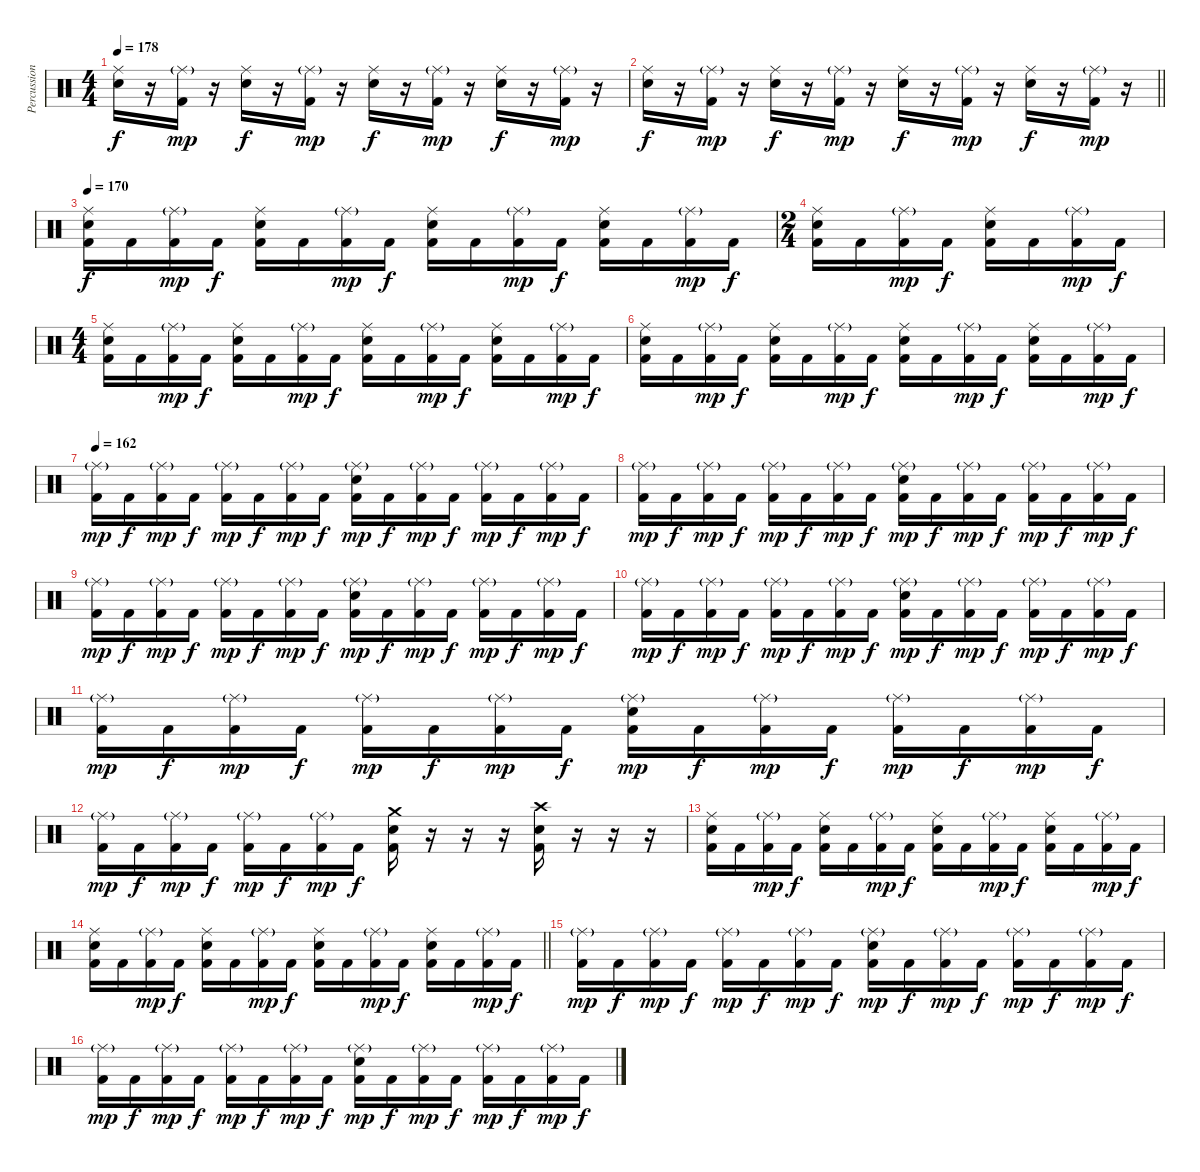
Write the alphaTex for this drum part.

\track ("Percussion" "Percussion") {instrument percussion}
\staff {score}
\articulation defaults
\ts (4 4)
\tempo 178
\clef neutral
\ks c
("Ride (middle)" "Electric Snare (hit)").16{dy f} r.16 ("Ride (middle)"{g} "Kick (hit) 2").16{dy mp} r.16 ("Ride (middle)" "Electric Snare (hit)").16{dy f} r.16 ("Ride (middle)"{g} "Kick (hit) 2").16{dy mp} r.16 ("Ride (middle)" "Electric Snare (hit)").16{dy f} r.16 ("Ride (middle)"{g} "Kick (hit) 2").16{dy mp} r.16 ("Ride (middle)" "Electric Snare (hit)").16{dy f} r.16 ("Ride (middle)"{g} "Kick (hit) 2").16{dy mp} r.16 |
\barLineRight lightlight
("Ride (middle)" "Electric Snare (hit)").16{dy f} r.16 ("Ride (middle)"{g} "Kick (hit) 2").16{dy mp} r.16 ("Ride (middle)" "Electric Snare (hit)").16{dy f} r.16 ("Ride (middle)"{g} "Kick (hit) 2").16{dy mp} r.16 ("Ride (middle)" "Electric Snare (hit)").16{dy f} r.16 ("Ride (middle)"{g} "Kick (hit) 2").16{dy mp} r.16 ("Ride (middle)" "Electric Snare (hit)").16{dy f} r.16 ("Ride (middle)"{g} "Kick (hit) 2").16{dy mp} r.16 |
\section ("" "")
\tempo 170
("Ride (middle)" "Electric Snare (hit)" "Kick (hit) 2").16{dy f} "Kick (hit) 2".16 ("Ride (middle)"{g} "Kick (hit) 2").16{dy mp} "Kick (hit) 2".16{dy f} ("Ride (middle)" "Electric Snare (hit)" "Kick (hit) 2").16 "Kick (hit) 2".16 ("Ride (middle)"{g} "Kick (hit) 2").16{dy mp} "Kick (hit) 2".16{dy f} ("Ride (middle)" "Electric Snare (hit)" "Kick (hit) 2").16 "Kick (hit) 2".16 ("Ride (middle)"{g} "Kick (hit) 2").16{dy mp} "Kick (hit) 2".16{dy f} ("Ride (middle)" "Electric Snare (hit)" "Kick (hit) 2").16 "Kick (hit) 2".16 ("Ride (middle)"{g} "Kick (hit) 2").16{dy mp} "Kick (hit) 2".16{dy f} |
\ts (2 4)
("Ride (middle)" "Electric Snare (hit)" "Kick (hit) 2").16 "Kick (hit) 2".16 ("Ride (middle)"{g} "Kick (hit) 2").16{dy mp} "Kick (hit) 2".16{dy f} ("Ride (middle)" "Electric Snare (hit)" "Kick (hit) 2").16 "Kick (hit) 2".16 ("Ride (middle)"{g} "Kick (hit) 2").16{dy mp} "Kick (hit) 2".16{dy f} |
\ts (4 4)
("Ride (middle)" "Electric Snare (hit)" "Kick (hit) 2").16 "Kick (hit) 2".16 ("Ride (middle)"{g} "Kick (hit) 2").16{dy mp} "Kick (hit) 2".16{dy f} ("Ride (middle)" "Electric Snare (hit)" "Kick (hit) 2").16 "Kick (hit) 2".16 ("Ride (middle)"{g} "Kick (hit) 2").16{dy mp} "Kick (hit) 2".16{dy f} ("Ride (middle)" "Electric Snare (hit)" "Kick (hit) 2").16 "Kick (hit) 2".16 ("Ride (middle)"{g} "Kick (hit) 2").16{dy mp} "Kick (hit) 2".16{dy f} ("Ride (middle)" "Electric Snare (hit)" "Kick (hit) 2").16 "Kick (hit) 2".16 ("Ride (middle)"{g} "Kick (hit) 2").16{dy mp} "Kick (hit) 2".16{dy f} |
("Ride (middle)" "Electric Snare (hit)" "Kick (hit) 2").16 "Kick (hit) 2".16 ("Ride (middle)"{g} "Kick (hit) 2").16{dy mp} "Kick (hit) 2".16{dy f} ("Ride (middle)" "Electric Snare (hit)" "Kick (hit) 2").16 "Kick (hit) 2".16 ("Ride (middle)"{g} "Kick (hit) 2").16{dy mp} "Kick (hit) 2".16{dy f} ("Ride (middle)" "Electric Snare (hit)" "Kick (hit) 2").16 "Kick (hit) 2".16 ("Ride (middle)"{g} "Kick (hit) 2").16{dy mp} "Kick (hit) 2".16{dy f} ("Ride (middle)" "Electric Snare (hit)" "Kick (hit) 2").16 "Kick (hit) 2".16 ("Ride (middle)"{g} "Kick (hit) 2").16{dy mp} "Kick (hit) 2".16{dy f} |
\tempo 162
("Ride (middle)"{g} "Kick (hit) 2").16{dy mp} "Kick (hit) 2".16{dy f} ("Ride (middle)"{g} "Kick (hit) 2").16{dy mp} "Kick (hit) 2".16{dy f} ("Ride (middle)"{g} "Kick (hit) 2").16{dy mp} "Kick (hit) 2".16{dy f} ("Ride (middle)"{g} "Kick (hit) 2").16{dy mp} "Kick (hit) 2".16{dy f} ("Ride (middle)"{g} "Electric Snare (hit)" "Kick (hit) 2").16{dy mp} "Kick (hit) 2".16{dy f} ("Ride (middle)"{g} "Kick (hit) 2").16{dy mp} "Kick (hit) 2".16{dy f} ("Ride (middle)"{g} "Kick (hit) 2").16{dy mp} "Kick (hit) 2".16{dy f} ("Ride (middle)"{g} "Kick (hit) 2").16{dy mp} "Kick (hit) 2".16{dy f} |
("Ride (middle)"{g} "Kick (hit) 2").16{dy mp} "Kick (hit) 2".16{dy f} ("Ride (middle)"{g} "Kick (hit) 2").16{dy mp} "Kick (hit) 2".16{dy f} ("Ride (middle)"{g} "Kick (hit) 2").16{dy mp} "Kick (hit) 2".16{dy f} ("Ride (middle)"{g} "Kick (hit) 2").16{dy mp} "Kick (hit) 2".16{dy f} ("Ride (middle)"{g} "Electric Snare (hit)" "Kick (hit) 2").16{dy mp} "Kick (hit) 2".16{dy f} ("Ride (middle)"{g} "Kick (hit) 2").16{dy mp} "Kick (hit) 2".16{dy f} ("Ride (middle)"{g} "Kick (hit) 2").16{dy mp} "Kick (hit) 2".16{dy f} ("Ride (middle)"{g} "Kick (hit) 2").16{dy mp} "Kick (hit) 2".16{dy f} |
("Ride (middle)"{g} "Kick (hit) 2").16{dy mp} "Kick (hit) 2".16{dy f} ("Ride (middle)"{g} "Kick (hit) 2").16{dy mp} "Kick (hit) 2".16{dy f} ("Ride (middle)"{g} "Kick (hit) 2").16{dy mp} "Kick (hit) 2".16{dy f} ("Ride (middle)"{g} "Kick (hit) 2").16{dy mp} "Kick (hit) 2".16{dy f} ("Ride (middle)"{g} "Electric Snare (hit)" "Kick (hit) 2").16{dy mp} "Kick (hit) 2".16{dy f} ("Ride (middle)"{g} "Kick (hit) 2").16{dy mp} "Kick (hit) 2".16{dy f} ("Ride (middle)"{g} "Kick (hit) 2").16{dy mp} "Kick (hit) 2".16{dy f} ("Ride (middle)"{g} "Kick (hit) 2").16{dy mp} "Kick (hit) 2".16{dy f} |
("Ride (middle)"{g} "Kick (hit) 2").16{dy mp} "Kick (hit) 2".16{dy f} ("Ride (middle)"{g} "Kick (hit) 2").16{dy mp} "Kick (hit) 2".16{dy f} ("Ride (middle)"{g} "Kick (hit) 2").16{dy mp} "Kick (hit) 2".16{dy f} ("Ride (middle)"{g} "Kick (hit) 2").16{dy mp} "Kick (hit) 2".16{dy f} ("Ride (middle)"{g} "Electric Snare (hit)" "Kick (hit) 2").16{dy mp} "Kick (hit) 2".16{dy f} ("Ride (middle)"{g} "Kick (hit) 2").16{dy mp} "Kick (hit) 2".16{dy f} ("Ride (middle)"{g} "Kick (hit) 2").16{dy mp} "Kick (hit) 2".16{dy f} ("Ride (middle)"{g} "Kick (hit) 2").16{dy mp} "Kick (hit) 2".16{dy f} |
("Ride (middle)"{g} "Kick (hit) 2").16{dy mp} "Kick (hit) 2".16{dy f} ("Ride (middle)"{g} "Kick (hit) 2").16{dy mp} "Kick (hit) 2".16{dy f} ("Ride (middle)"{g} "Kick (hit) 2").16{dy mp} "Kick (hit) 2".16{dy f} ("Ride (middle)"{g} "Kick (hit) 2").16{dy mp} "Kick (hit) 2".16{dy f} ("Ride (middle)"{g} "Electric Snare (hit)" "Kick (hit) 2").16{dy mp} "Kick (hit) 2".16{dy f} ("Ride (middle)"{g} "Kick (hit) 2").16{dy mp} "Kick (hit) 2".16{dy f} ("Ride (middle)"{g} "Kick (hit) 2").16{dy mp} "Kick (hit) 2".16{dy f} ("Ride (middle)"{g} "Kick (hit) 2").16{dy mp} "Kick (hit) 2".16{dy f} |
("Ride (middle)"{g} "Kick (hit) 2").16{dy mp} "Kick (hit) 2".16{dy f} ("Ride (middle)"{g} "Kick (hit) 2").16{dy mp} "Kick (hit) 2".16{dy f} ("Ride (middle)"{g} "Kick (hit) 2").16{dy mp} "Kick (hit) 2".16{dy f} ("Ride (middle)"{g} "Kick (hit) 2").16{dy mp} "Kick (hit) 2".16{dy f} ("Crash medium (hit)" "Electric Snare (hit)" "Kick (hit) 2").16 r.16 r.16 r.16 ("Crash high (hit)" "Electric Snare (hit)" "Kick (hit) 2").16 r.16 r.16 r.16 |
("Ride (middle)" "Electric Snare (hit)" "Kick (hit) 2").16 "Kick (hit) 2".16 ("Ride (middle)"{g} "Kick (hit) 2").16{dy mp} "Kick (hit) 2".16{dy f} ("Ride (middle)" "Electric Snare (hit)" "Kick (hit) 2").16 "Kick (hit) 2".16 ("Ride (middle)"{g} "Kick (hit) 2").16{dy mp} "Kick (hit) 2".16{dy f} ("Ride (middle)" "Electric Snare (hit)" "Kick (hit) 2").16 "Kick (hit) 2".16 ("Ride (middle)"{g} "Kick (hit) 2").16{dy mp} "Kick (hit) 2".16{dy f} ("Ride (middle)" "Electric Snare (hit)" "Kick (hit) 2").16 "Kick (hit) 2".16 ("Ride (middle)"{g} "Kick (hit) 2").16{dy mp} "Kick (hit) 2".16{dy f} |
\barLineRight lightlight
("Ride (middle)" "Electric Snare (hit)" "Kick (hit) 2").16 "Kick (hit) 2".16 ("Ride (middle)"{g} "Kick (hit) 2").16{dy mp} "Kick (hit) 2".16{dy f} ("Ride (middle)" "Electric Snare (hit)" "Kick (hit) 2").16 "Kick (hit) 2".16 ("Ride (middle)"{g} "Kick (hit) 2").16{dy mp} "Kick (hit) 2".16{dy f} ("Ride (middle)" "Electric Snare (hit)" "Kick (hit) 2").16 "Kick (hit) 2".16 ("Ride (middle)"{g} "Kick (hit) 2").16{dy mp} "Kick (hit) 2".16{dy f} ("Ride (middle)" "Electric Snare (hit)" "Kick (hit) 2").16 "Kick (hit) 2".16 ("Ride (middle)"{g} "Kick (hit) 2").16{dy mp} "Kick (hit) 2".16{dy f} |
("Ride (middle)"{g} "Kick (hit) 2").16{dy mp} "Kick (hit) 2".16{dy f} ("Ride (middle)"{g} "Kick (hit) 2").16{dy mp} "Kick (hit) 2".16{dy f} ("Ride (middle)"{g} "Kick (hit) 2").16{dy mp} "Kick (hit) 2".16{dy f} ("Ride (middle)"{g} "Kick (hit) 2").16{dy mp} "Kick (hit) 2".16{dy f} ("Ride (middle)"{g} "Electric Snare (hit)" "Kick (hit) 2").16{dy mp} "Kick (hit) 2".16{dy f} ("Ride (middle)"{g} "Kick (hit) 2").16{dy mp} "Kick (hit) 2".16{dy f} ("Ride (middle)"{g} "Kick (hit) 2").16{dy mp} "Kick (hit) 2".16{dy f} ("Ride (middle)"{g} "Kick (hit) 2").16{dy mp} "Kick (hit) 2".16{dy f} |
("Ride (middle)"{g} "Kick (hit) 2").16{dy mp} "Kick (hit) 2".16{dy f} ("Ride (middle)"{g} "Kick (hit) 2").16{dy mp} "Kick (hit) 2".16{dy f} ("Ride (middle)"{g} "Kick (hit) 2").16{dy mp} "Kick (hit) 2".16{dy f} ("Ride (middle)"{g} "Kick (hit) 2").16{dy mp} "Kick (hit) 2".16{dy f} ("Ride (middle)"{g} "Electric Snare (hit)" "Kick (hit) 2").16{dy mp} "Kick (hit) 2".16{dy f} ("Ride (middle)"{g} "Kick (hit) 2").16{dy mp} "Kick (hit) 2".16{dy f} ("Ride (middle)"{g} "Kick (hit) 2").16{dy mp} "Kick (hit) 2".16{dy f} ("Ride (middle)"{g} "Kick (hit) 2").16{dy mp} "Kick (hit) 2".16{dy f}
